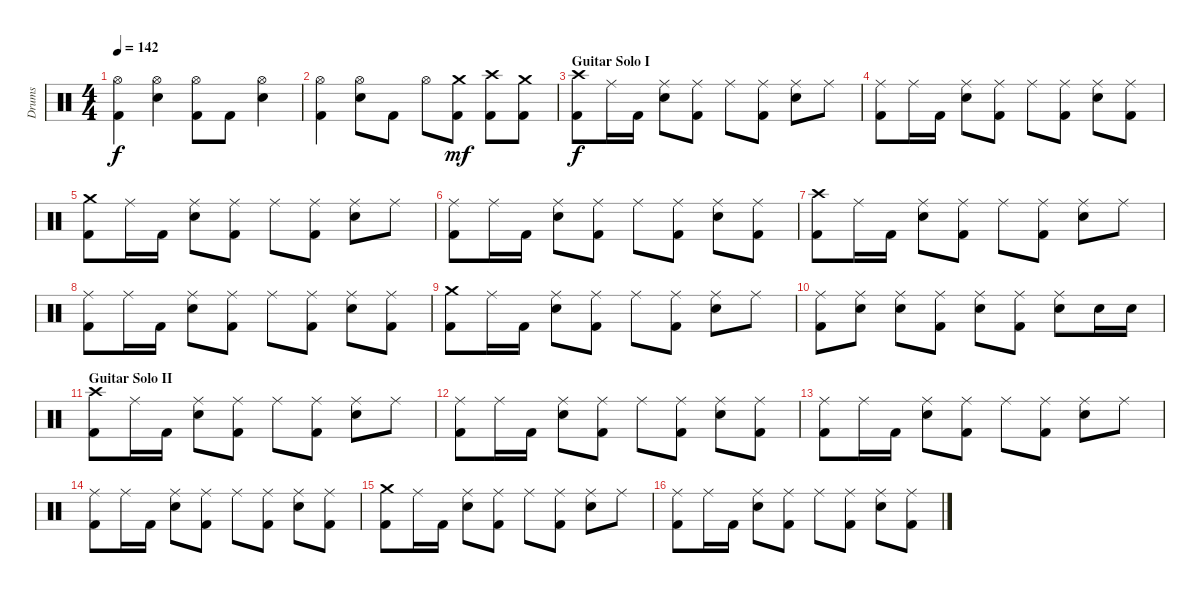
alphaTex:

\track ("Drums" "Drums") {instrument percussion}
\staff {score}
\articulation defaults
\ts (4 4)
\tempo 142
\clef neutral
\ks c
("Hi-Hat (open)" "Kick (hit) 2").4{dy f} ("Hi-Hat (open)" "Electric Snare (hit)").4 ("Hi-Hat (open)" "Kick (hit) 2").8 "Kick (hit) 2".8 ("Hi-Hat (open)" "Electric Snare (hit)").4 |
("Hi-Hat (open)" "Kick (hit) 2").4 ("Hi-Hat (open)" "Electric Snare (hit)").8 "Kick (hit) 2".8 "Hi-Hat (open)".8 ("Crash medium (hit)" "Kick (hit) 2").8{dy mf} ("Crash high (hit)" "Kick (hit) 2").8 ("Crash medium (hit)" "Kick (hit) 2").8 |
\section ("" "Guitar Solo I")
("Crash high (hit)" "Kick (hit) 2").8{dy f} "Ride (middle)".16 "Kick (hit) 2".16 ("Ride (middle)" "Electric Snare (hit)").8 ("Ride (middle)" "Kick (hit) 2").8 "Ride (middle)".8 ("Ride (middle)" "Kick (hit) 2").8 ("Ride (middle)" "Electric Snare (hit)").8 "Ride (middle)".8 |
("Ride (middle)" "Kick (hit) 2").8 "Ride (middle)".16 "Kick (hit) 2".16 ("Ride (middle)" "Electric Snare (hit)").8 ("Ride (middle)" "Kick (hit) 2").8 "Ride (middle)".8 ("Ride (middle)" "Kick (hit) 2").8 ("Ride (middle)" "Electric Snare (hit)").8 ("Ride (middle)" "Kick (hit) 2").8 |
("Crash medium (hit)" "Kick (hit) 2").8 "Ride (middle)".16 "Kick (hit) 2".16 ("Ride (middle)" "Electric Snare (hit)").8 ("Ride (middle)" "Kick (hit) 2").8 "Ride (middle)".8 ("Ride (middle)" "Kick (hit) 2").8 ("Ride (middle)" "Electric Snare (hit)").8 "Ride (middle)".8 |
("Ride (middle)" "Kick (hit) 2").8 "Ride (middle)".16 "Kick (hit) 2".16 ("Ride (middle)" "Electric Snare (hit)").8 ("Ride (middle)" "Kick (hit) 2").8 "Ride (middle)".8 ("Ride (middle)" "Kick (hit) 2").8 ("Ride (middle)" "Electric Snare (hit)").8 ("Ride (middle)" "Kick (hit) 2").8 |
("Crash high (hit)" "Kick (hit) 2").8 "Ride (middle)".16 "Kick (hit) 2".16 ("Ride (middle)" "Electric Snare (hit)").8 ("Ride (middle)" "Kick (hit) 2").8 "Ride (middle)".8 ("Ride (middle)" "Kick (hit) 2").8 ("Ride (middle)" "Electric Snare (hit)").8 "Ride (middle)".8 |
("Ride (middle)" "Kick (hit) 2").8 "Ride (middle)".16 "Kick (hit) 2".16 ("Ride (middle)" "Electric Snare (hit)").8 ("Ride (middle)" "Kick (hit) 2").8 "Ride (middle)".8 ("Ride (middle)" "Kick (hit) 2").8 ("Ride (middle)" "Electric Snare (hit)").8 ("Ride (middle)" "Kick (hit) 2").8 |
("Crash medium (hit)" "Kick (hit) 2").8 "Ride (middle)".16 "Kick (hit) 2".16 ("Ride (middle)" "Electric Snare (hit)").8 ("Ride (middle)" "Kick (hit) 2").8 "Ride (middle)".8 ("Ride (middle)" "Kick (hit) 2").8 ("Ride (middle)" "Electric Snare (hit)").8 "Ride (middle)".8 |
("Ride (middle)" "Kick (hit) 2").8 ("Ride (middle)" "Electric Snare (hit)").8 ("Ride (middle)" "Electric Snare (hit)").8 ("Ride (middle)" "Kick (hit) 2").8 ("Ride (middle)" "Electric Snare (hit)").8 ("Ride (middle)" "Kick (hit) 2").8 ("Ride (middle)" "Electric Snare (hit)").8 "Electric Snare (hit)".16 "Electric Snare (hit)".16 |
\section ("" "Guitar Solo II")
("Crash high (hit)" "Kick (hit) 2").8 "Ride (middle)".16 "Kick (hit) 2".16 ("Ride (middle)" "Electric Snare (hit)").8 ("Ride (middle)" "Kick (hit) 2").8 "Ride (middle)".8 ("Ride (middle)" "Kick (hit) 2").8 ("Ride (middle)" "Electric Snare (hit)").8 "Ride (middle)".8 |
("Ride (middle)" "Kick (hit) 2").8 "Ride (middle)".16 "Kick (hit) 2".16 ("Ride (middle)" "Electric Snare (hit)").8 ("Ride (middle)" "Kick (hit) 2").8 "Ride (middle)".8 ("Ride (middle)" "Kick (hit) 2").8 ("Ride (middle)" "Electric Snare (hit)").8 ("Ride (middle)" "Kick (hit) 2").8 |
("Ride (middle)" "Kick (hit) 2").8 "Ride (middle)".16 "Kick (hit) 2".16 ("Ride (middle)" "Electric Snare (hit)").8 ("Ride (middle)" "Kick (hit) 2").8 "Ride (middle)".8 ("Ride (middle)" "Kick (hit) 2").8 ("Ride (middle)" "Electric Snare (hit)").8 "Ride (middle)".8 |
("Ride (middle)" "Kick (hit) 2").8 "Ride (middle)".16 "Kick (hit) 2".16 ("Ride (middle)" "Electric Snare (hit)").8 ("Ride (middle)" "Kick (hit) 2").8 "Ride (middle)".8 ("Ride (middle)" "Kick (hit) 2").8 ("Ride (middle)" "Electric Snare (hit)").8 ("Ride (middle)" "Kick (hit) 2").8 |
("Crash medium (hit)" "Kick (hit) 2").8 "Ride (middle)".16 "Kick (hit) 2".16 ("Ride (middle)" "Electric Snare (hit)").8 ("Ride (middle)" "Kick (hit) 2").8 "Ride (middle)".8 ("Ride (middle)" "Kick (hit) 2").8 ("Ride (middle)" "Electric Snare (hit)").8 "Ride (middle)".8 |
("Ride (middle)" "Kick (hit) 2").8 "Ride (middle)".16 "Kick (hit) 2".16 ("Ride (middle)" "Electric Snare (hit)").8 ("Ride (middle)" "Kick (hit) 2").8 "Ride (middle)".8 ("Ride (middle)" "Kick (hit) 2").8 ("Ride (middle)" "Electric Snare (hit)").8 ("Ride (middle)" "Kick (hit) 2").8
